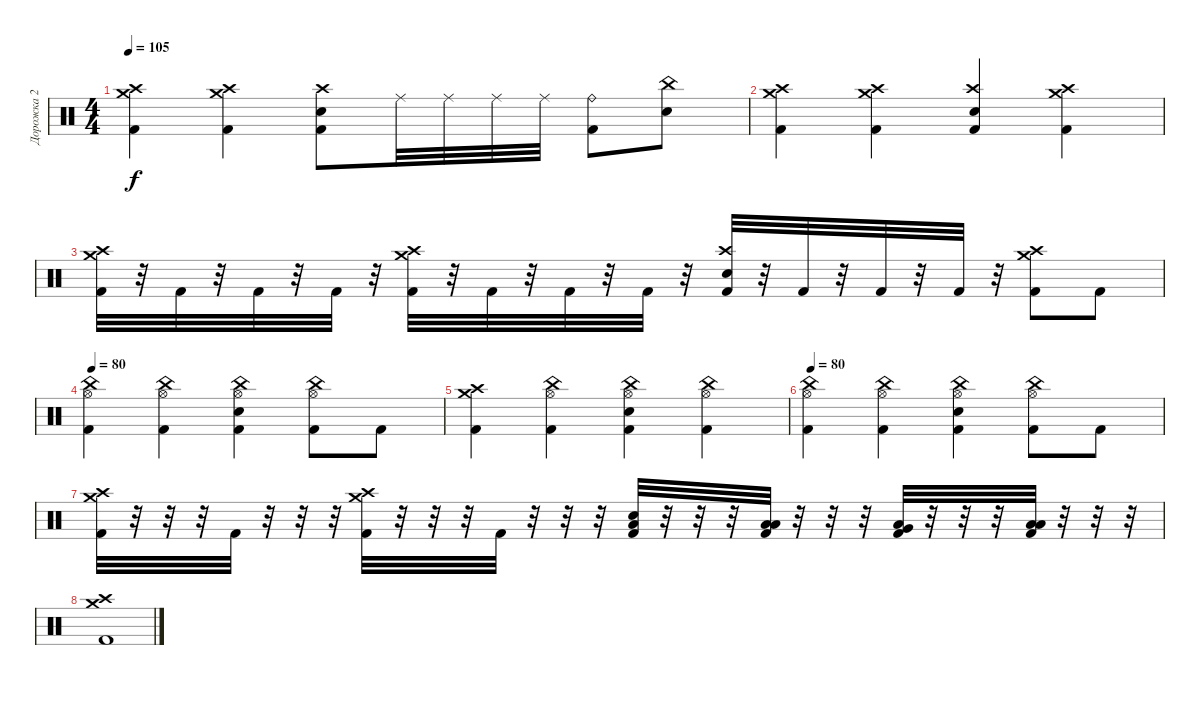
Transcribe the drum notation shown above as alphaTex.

\track ("Дорожка 2" "Дорожка 2") {instrument percussion}
\staff {score}
\articulation defaults
\ts (4 4)
\tempo 105
\clef neutral
\ks c
("Kick (hit) 2" "Crash high (hit)" "Crash medium (hit)").4{dy f} ("Kick (hit) 2" "Crash high (hit)" "Crash medium (hit)").4 ("Kick (hit) 2" "Electric Snare (hit)" "Crash high (hit)").8 "Ride (middle)".32 "Ride (middle)".32 "Ride (middle)".32 "Ride (middle)".32 ("Kick (hit) 2" "Ride (bell)").8 ("Electric Snare (hit)" "China (hit)").8 |
("Kick (hit) 2" "Crash high (hit)" "Crash medium (hit)").4 ("Kick (hit) 2" "Crash high (hit)" "Crash medium (hit)").4 ("Kick (hit) 2" "Electric Snare (hit)" "Crash high (hit)").4 ("Kick (hit) 2" "Crash high (hit)" "Crash medium (hit)").4 |
("Kick (hit) 2" "Crash high (hit)" "Crash medium (hit)").32 r.32 "Kick (hit) 2".32 r.32 "Kick (hit) 2".32 r.32 "Kick (hit) 2".32 r.32 ("Kick (hit) 2" "Crash high (hit)" "Crash medium (hit)").32 r.32 "Kick (hit) 2".32 r.32 "Kick (hit) 2".32 r.32 "Kick (hit) 2".32 r.32 ("Kick (hit) 2" "Electric Snare (hit)" "Crash high (hit)").32 r.32 "Kick (hit) 2".32 r.32 "Kick (hit) 2".32 r.32 "Kick (hit) 2".32 r.32 ("Kick (hit) 2" "Crash high (hit)" "Crash medium (hit)").8 "Kick (hit) 2".8 |
\tempo 80
("Kick (hit) 2" "Hi-Hat (open)" "China (hit)").4 ("Kick (hit) 2" "Hi-Hat (open)" "China (hit)").4 ("Kick (hit) 2" "Electric Snare (hit)" "Hi-Hat (open)" "China (hit)").4 ("Kick (hit) 2" "Hi-Hat (open)" "China (hit)").8 "Kick (hit) 2".8 |
("Kick (hit) 2" "Crash high (hit)" "Crash medium (hit)").4 ("Kick (hit) 2" "Hi-Hat (open)" "China (hit)").4 ("Kick (hit) 2" "Electric Snare (hit)" "Hi-Hat (open)" "China (hit)").4 ("Kick (hit) 2" "Hi-Hat (open)" "China (hit)").4 |
\tempo 80
("Kick (hit) 2" "Hi-Hat (open)" "China (hit)").4 ("Kick (hit) 2" "Hi-Hat (open)" "China (hit)").4 ("Kick (hit) 2" "Electric Snare (hit)" "Hi-Hat (open)" "China (hit)").4 ("Kick (hit) 2" "Hi-Hat (open)" "China (hit)").8 "Kick (hit) 2".8 |
("Kick (hit) 2" "Crash medium (hit)" "Crash high (hit)").32 r.32 r.32 r.32 "Kick (hit) 2".32 r.32 r.32 r.32 ("Kick (hit) 2" "Crash high (hit)" "Crash medium (hit)").32 r.32 r.32 r.32 "Kick (hit) 2".32 r.32 r.32 r.32 ("Kick (hit) 2" "Low Floor Tom (hit)" "Electric Snare (hit)").32 r.32 r.32 r.32 ("Kick (hit) 2" "Low Floor Tom (hit)" "Low Tom (hit)").32 r.32 r.32 r.32 ("Kick (hit) 2" "Low Floor Tom (hit)" "Very Low Tom (hit)").32 r.32 r.32 r.32 ("Kick (hit) 2" "Low Floor Tom (hit)" "Low Floor Tom (hit)").32 r.32 r.32 r.32 |
("Kick (hit) 2" "Crash high (hit)" "Crash medium (hit)").1
